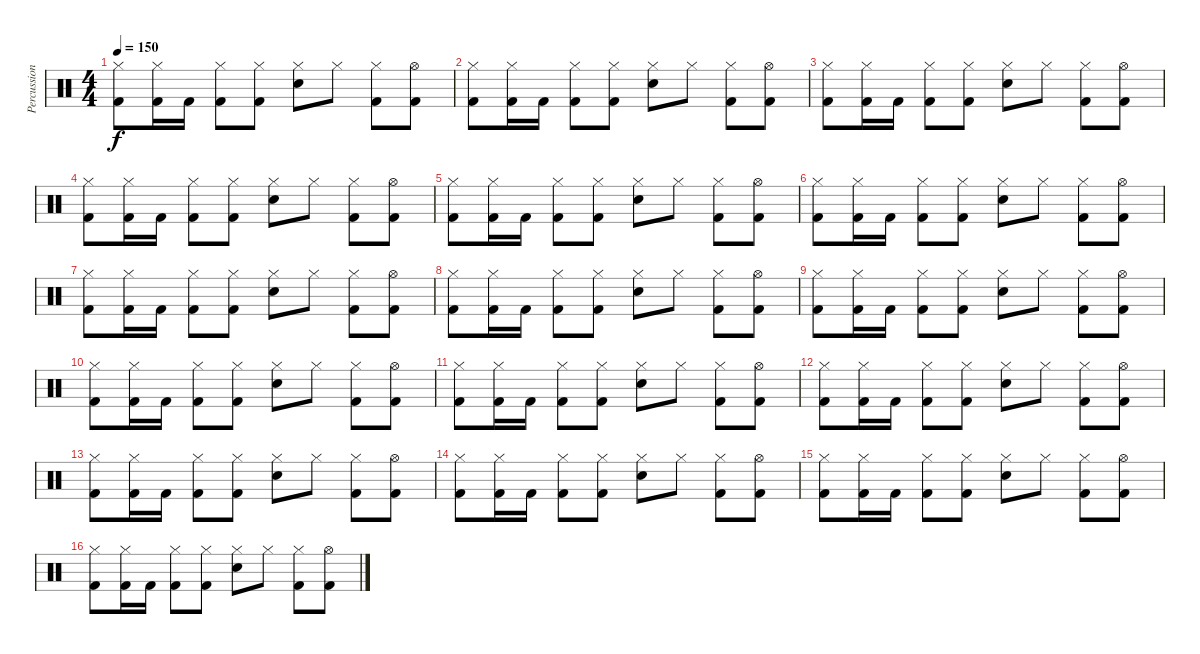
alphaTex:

\track ("Percussions" "Percussion") {instrument percussion}
\staff {score}
\articulation defaults
\ts (4 4)
\tempo 150
\clef neutral
\ks c
("Hi-Hat (closed)" "Kick (hit) 2").8{dy f} ("Hi-Hat (closed)" "Kick (hit) 2").16 "Kick (hit) 2".16 ("Hi-Hat (closed)" "Kick (hit) 2").8 ("Hi-Hat (closed)" "Kick (hit) 2").8 ("Hi-Hat (closed)" "Snare (hit) 2").8 "Hi-Hat (closed)".8 ("Hi-Hat (closed)" "Kick (hit) 2").8 ("Hi-Hat (open)" "Kick (hit) 2").8 |
("Hi-Hat (closed)" "Kick (hit) 2").8 ("Hi-Hat (closed)" "Kick (hit) 2").16 "Kick (hit) 2".16 ("Hi-Hat (closed)" "Kick (hit) 2").8 ("Hi-Hat (closed)" "Kick (hit) 2").8 ("Hi-Hat (closed)" "Snare (hit) 2").8 "Hi-Hat (closed)".8 ("Hi-Hat (closed)" "Kick (hit) 2").8 ("Hi-Hat (open)" "Kick (hit) 2").8 |
("Hi-Hat (closed)" "Kick (hit) 2").8 ("Hi-Hat (closed)" "Kick (hit) 2").16 "Kick (hit) 2".16 ("Hi-Hat (closed)" "Kick (hit) 2").8 ("Hi-Hat (closed)" "Kick (hit) 2").8 ("Hi-Hat (closed)" "Snare (hit) 2").8 "Hi-Hat (closed)".8 ("Hi-Hat (closed)" "Kick (hit) 2").8 ("Hi-Hat (open)" "Kick (hit) 2").8 |
("Hi-Hat (closed)" "Kick (hit) 2").8 ("Hi-Hat (closed)" "Kick (hit) 2").16 "Kick (hit) 2".16 ("Hi-Hat (closed)" "Kick (hit) 2").8 ("Hi-Hat (closed)" "Kick (hit) 2").8 ("Hi-Hat (closed)" "Snare (hit) 2").8 "Hi-Hat (closed)".8 ("Hi-Hat (closed)" "Kick (hit) 2").8 ("Hi-Hat (open)" "Kick (hit) 2").8 |
("Hi-Hat (closed)" "Kick (hit) 2").8 ("Hi-Hat (closed)" "Kick (hit) 2").16 "Kick (hit) 2".16 ("Hi-Hat (closed)" "Kick (hit) 2").8 ("Hi-Hat (closed)" "Kick (hit) 2").8 ("Hi-Hat (closed)" "Snare (hit) 2").8 "Hi-Hat (closed)".8 ("Hi-Hat (closed)" "Kick (hit) 2").8 ("Hi-Hat (open)" "Kick (hit) 2").8 |
("Hi-Hat (closed)" "Kick (hit) 2").8 ("Hi-Hat (closed)" "Kick (hit) 2").16 "Kick (hit) 2".16 ("Hi-Hat (closed)" "Kick (hit) 2").8 ("Hi-Hat (closed)" "Kick (hit) 2").8 ("Hi-Hat (closed)" "Snare (hit) 2").8 "Hi-Hat (closed)".8 ("Hi-Hat (closed)" "Kick (hit) 2").8 ("Hi-Hat (open)" "Kick (hit) 2").8 |
("Hi-Hat (closed)" "Kick (hit) 2").8 ("Hi-Hat (closed)" "Kick (hit) 2").16 "Kick (hit) 2".16 ("Hi-Hat (closed)" "Kick (hit) 2").8 ("Hi-Hat (closed)" "Kick (hit) 2").8 ("Hi-Hat (closed)" "Snare (hit) 2").8 "Hi-Hat (closed)".8 ("Hi-Hat (closed)" "Kick (hit) 2").8 ("Hi-Hat (open)" "Kick (hit) 2").8 |
("Hi-Hat (closed)" "Kick (hit) 2").8 ("Hi-Hat (closed)" "Kick (hit) 2").16 "Kick (hit) 2".16 ("Hi-Hat (closed)" "Kick (hit) 2").8 ("Hi-Hat (closed)" "Kick (hit) 2").8 ("Hi-Hat (closed)" "Snare (hit) 2").8 "Hi-Hat (closed)".8 ("Hi-Hat (closed)" "Kick (hit) 2").8 ("Hi-Hat (open)" "Kick (hit) 2").8 |
("Hi-Hat (closed)" "Kick (hit) 2").8 ("Hi-Hat (closed)" "Kick (hit) 2").16 "Kick (hit) 2".16 ("Hi-Hat (closed)" "Kick (hit) 2").8 ("Hi-Hat (closed)" "Kick (hit) 2").8 ("Hi-Hat (closed)" "Snare (hit) 2").8 "Hi-Hat (closed)".8 ("Hi-Hat (closed)" "Kick (hit) 2").8 ("Hi-Hat (open)" "Kick (hit) 2").8 |
("Hi-Hat (closed)" "Kick (hit) 2").8 ("Hi-Hat (closed)" "Kick (hit) 2").16 "Kick (hit) 2".16 ("Hi-Hat (closed)" "Kick (hit) 2").8 ("Hi-Hat (closed)" "Kick (hit) 2").8 ("Hi-Hat (closed)" "Snare (hit) 2").8 "Hi-Hat (closed)".8 ("Hi-Hat (closed)" "Kick (hit) 2").8 ("Hi-Hat (open)" "Kick (hit) 2").8 |
("Hi-Hat (closed)" "Kick (hit) 2").8 ("Hi-Hat (closed)" "Kick (hit) 2").16 "Kick (hit) 2".16 ("Hi-Hat (closed)" "Kick (hit) 2").8 ("Hi-Hat (closed)" "Kick (hit) 2").8 ("Hi-Hat (closed)" "Snare (hit) 2").8 "Hi-Hat (closed)".8 ("Hi-Hat (closed)" "Kick (hit) 2").8 ("Hi-Hat (open)" "Kick (hit) 2").8 |
("Hi-Hat (closed)" "Kick (hit) 2").8 ("Hi-Hat (closed)" "Kick (hit) 2").16 "Kick (hit) 2".16 ("Hi-Hat (closed)" "Kick (hit) 2").8 ("Hi-Hat (closed)" "Kick (hit) 2").8 ("Hi-Hat (closed)" "Snare (hit) 2").8 "Hi-Hat (closed)".8 ("Hi-Hat (closed)" "Kick (hit) 2").8 ("Hi-Hat (open)" "Kick (hit) 2").8 |
("Hi-Hat (closed)" "Kick (hit) 2").8 ("Hi-Hat (closed)" "Kick (hit) 2").16 "Kick (hit) 2".16 ("Hi-Hat (closed)" "Kick (hit) 2").8 ("Hi-Hat (closed)" "Kick (hit) 2").8 ("Hi-Hat (closed)" "Snare (hit) 2").8 "Hi-Hat (closed)".8 ("Hi-Hat (closed)" "Kick (hit) 2").8 ("Hi-Hat (open)" "Kick (hit) 2").8 |
("Hi-Hat (closed)" "Kick (hit) 2").8 ("Hi-Hat (closed)" "Kick (hit) 2").16 "Kick (hit) 2".16 ("Hi-Hat (closed)" "Kick (hit) 2").8 ("Hi-Hat (closed)" "Kick (hit) 2").8 ("Hi-Hat (closed)" "Snare (hit) 2").8 "Hi-Hat (closed)".8 ("Hi-Hat (closed)" "Kick (hit) 2").8 ("Hi-Hat (open)" "Kick (hit) 2").8 |
("Hi-Hat (closed)" "Kick (hit) 2").8 ("Hi-Hat (closed)" "Kick (hit) 2").16 "Kick (hit) 2".16 ("Hi-Hat (closed)" "Kick (hit) 2").8 ("Hi-Hat (closed)" "Kick (hit) 2").8 ("Hi-Hat (closed)" "Snare (hit) 2").8 "Hi-Hat (closed)".8 ("Hi-Hat (closed)" "Kick (hit) 2").8 ("Hi-Hat (open)" "Kick (hit) 2").8 |
("Hi-Hat (closed)" "Kick (hit) 2").8 ("Hi-Hat (closed)" "Kick (hit) 2").16 "Kick (hit) 2".16 ("Hi-Hat (closed)" "Kick (hit) 2").8 ("Hi-Hat (closed)" "Kick (hit) 2").8 ("Hi-Hat (closed)" "Snare (hit) 2").8 "Hi-Hat (closed)".8 ("Hi-Hat (closed)" "Kick (hit) 2").8 ("Hi-Hat (open)" "Kick (hit) 2").8
